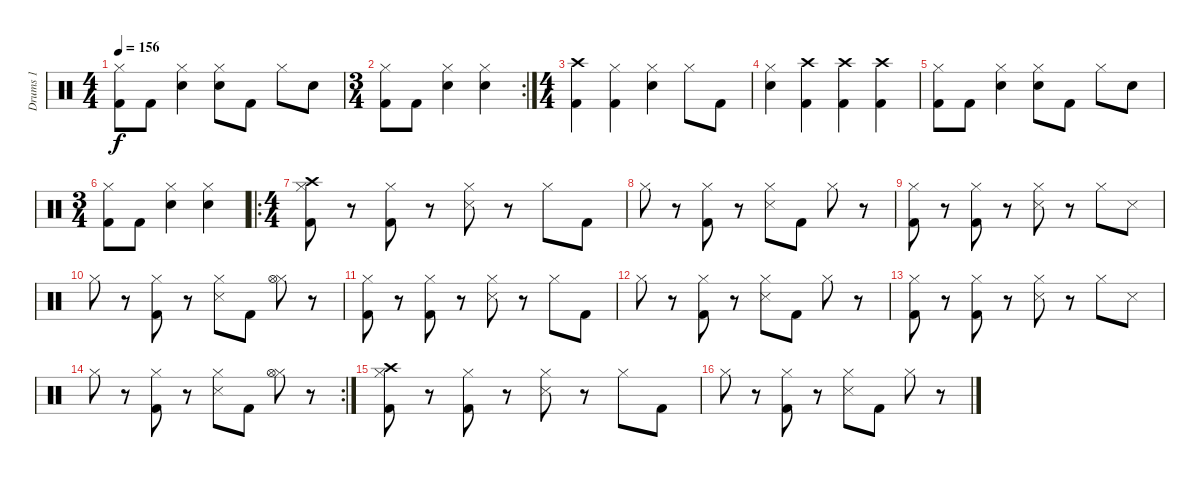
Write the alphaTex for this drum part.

\track ("Drums 1" "Drums 1") {instrument percussion}
\staff {score}
\articulation defaults
\ts (4 4)
\tempo 156
\clef neutral
\ks c
("Hi-Hat (closed)" "Kick (hit) 2").8{dy f} "Kick (hit) 2".8 ("Hi-Hat (closed)" "Snare (hit) 2").4 ("Hi-Hat (closed)" "Snare (hit) 2").8 "Kick (hit) 2".8 "Hi-Hat (closed)".8 "Snare (hit) 2".8 |
\rc 2
\ts (3 4)
("Hi-Hat (closed)" "Kick (hit) 2").8 "Kick (hit) 2".8 ("Hi-Hat (closed)" "Snare (hit) 2").4 ("Hi-Hat (closed)" "Snare (hit) 2").4 |
\ts (4 4)
("Crash high (hit)" "Kick (hit) 2").4 ("Hi-Hat (closed)" "Kick (hit) 2").4 ("Hi-Hat (closed)" "Snare (hit) 2").4 "Hi-Hat (closed)".8 "Kick (hit) 2".8 |
("Hi-Hat (closed)" "Snare (hit) 2").4 ("Crash high (hit)" "Kick (hit) 2").4 ("Crash high (hit)" "Kick (hit) 2").4 ("Crash high (hit)" "Kick (hit) 2").4 |
("Hi-Hat (closed)" "Kick (hit) 2").8 "Kick (hit) 2".8 ("Hi-Hat (closed)" "Snare (hit) 2").4 ("Hi-Hat (closed)" "Snare (hit) 2").8 "Kick (hit) 2".8 "Hi-Hat (closed)".8 "Snare (hit) 2".8 |
\ts (3 4)
("Hi-Hat (closed)" "Kick (hit) 2").8 "Kick (hit) 2".8 ("Hi-Hat (closed)" "Snare (hit) 2").4 ("Hi-Hat (closed)" "Snare (hit) 2").4 |
\ro
\ts (4 4)
("Hi-Hat (closed)" "Crash high (hit)" "Kick (hit) 2").8 r.8 ("Hi-Hat (closed)" "Kick (hit) 2").8 r.8 ("Hi-Hat (closed)" "Snare (side stick) 3").8 r.8 "Hi-Hat (closed)".8 "Kick (hit) 2".8 |
"Hi-Hat (closed)".8 r.8 ("Hi-Hat (closed)" "Kick (hit) 2").8 r.8 ("Hi-Hat (closed)" "Snare (side stick) 3").8 "Kick (hit) 2".8 "Hi-Hat (closed)".8 r.8 |
("Hi-Hat (closed)" "Kick (hit) 2").8 r.8 ("Hi-Hat (closed)" "Kick (hit) 2").8 r.8 ("Hi-Hat (closed)" "Snare (side stick) 3").8 r.8 "Hi-Hat (closed)".8 "Snare (side stick) 3".8 |
"Hi-Hat (closed)".8 r.8 ("Hi-Hat (closed)" "Kick (hit) 2").8 r.8 ("Hi-Hat (closed)" "Snare (side stick) 3").8 "Kick (hit) 2".8 ("Hi-Hat (closed)" "Hi-Hat (open)").8 r.8 |
("Hi-Hat (closed)" "Kick (hit) 2").8 r.8 ("Hi-Hat (closed)" "Kick (hit) 2").8 r.8 ("Hi-Hat (closed)" "Snare (side stick) 3").8 r.8 "Hi-Hat (closed)".8 "Kick (hit) 2".8 |
"Hi-Hat (closed)".8 r.8 ("Hi-Hat (closed)" "Kick (hit) 2").8 r.8 ("Hi-Hat (closed)" "Snare (side stick) 3").8 "Kick (hit) 2".8 "Hi-Hat (closed)".8 r.8 |
("Hi-Hat (closed)" "Kick (hit) 2").8 r.8 ("Hi-Hat (closed)" "Kick (hit) 2").8 r.8 ("Hi-Hat (closed)" "Snare (side stick) 3").8 r.8 "Hi-Hat (closed)".8 "Snare (side stick) 3".8 |
\rc 2 "Hi-Hat (closed)".8
r.8 ("Hi-Hat (closed)" "Kick (hit) 2").8 r.8 ("Hi-Hat (closed)" "Snare (side stick) 3").8 "Kick (hit) 2".8 ("Hi-Hat (closed)" "Hi-Hat (open)").8 r.8 |
("Hi-Hat (closed)" "Crash high (hit)" "Kick (hit) 2").8 r.8 ("Hi-Hat (closed)" "Kick (hit) 2").8 r.8 ("Hi-Hat (closed)" "Snare (side stick) 3").8 r.8 "Hi-Hat (closed)".8 "Kick (hit) 2".8 |
"Hi-Hat (closed)".8 r.8 ("Hi-Hat (closed)" "Kick (hit) 2").8 r.8 ("Hi-Hat (closed)" "Snare (side stick) 3").8 "Kick (hit) 2".8 "Hi-Hat (closed)".8 r.8
